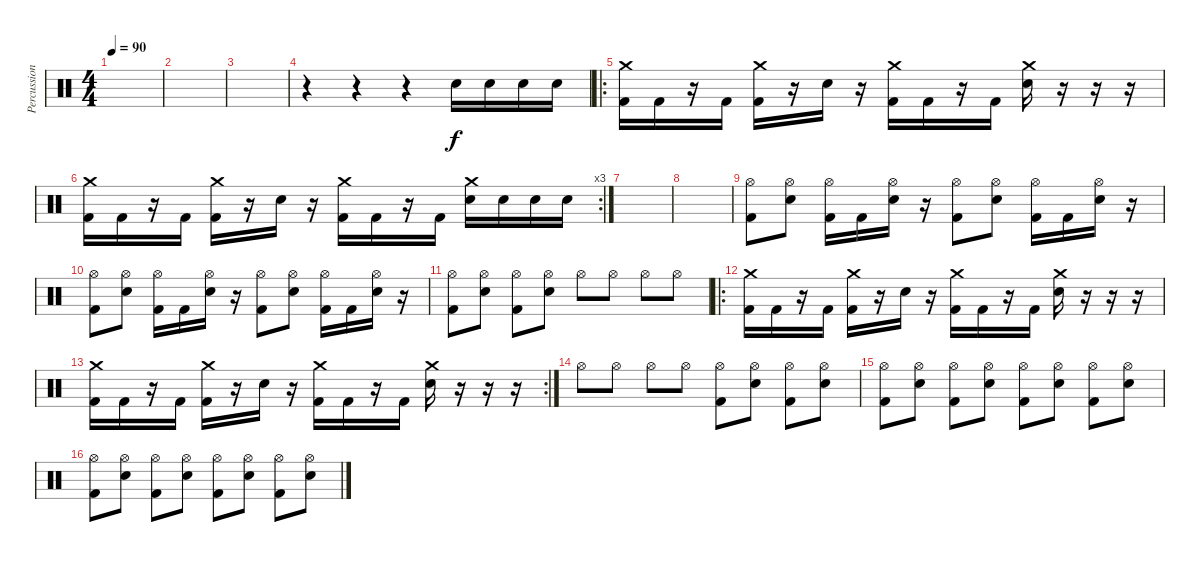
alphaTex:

\track ("Percussions" "Percussion") {instrument percussion}
\staff {score}
\articulation defaults
\ts (4 4)
\tempo 90
\clef neutral
\ks c
|
|
|
r.4 r.4 r.4 "Electric Snare (hit)".16 "Electric Snare (hit)".16 "Electric Snare (hit)".16 "Electric Snare (hit)".16 |
\ro
("Crash medium (hit)" "Kick (hit) 2").16 "Kick (hit) 2".16 r.16 "Kick (hit) 2".16 ("Crash medium (hit)" "Kick (hit) 2").16 r.16 "Electric Snare (hit)".16 r.16 ("Crash medium (hit)" "Kick (hit) 2").16 "Kick (hit) 2".16 r.16 "Kick (hit) 2".16 ("Crash medium (hit)" "Electric Snare (hit)").16 r.16 r.16 r.16 |
\rc 3
("Crash medium (hit)" "Kick (hit) 2").16 "Kick (hit) 2".16 r.16 "Kick (hit) 2".16 ("Crash medium (hit)" "Kick (hit) 2").16 r.16 "Electric Snare (hit)".16 r.16 ("Crash medium (hit)" "Kick (hit) 2").16 "Kick (hit) 2".16 r.16 "Kick (hit) 2".16 ("Crash medium (hit)" "Electric Snare (hit)").16 "Electric Snare (hit)".16 "Electric Snare (hit)".16 "Electric Snare (hit)".16 |
|
|
("Hi-Hat (open)" "Kick (hit) 2").8 ("Hi-Hat (open)" "Electric Snare (hit)").8 ("Hi-Hat (open)" "Kick (hit) 2").16 "Kick (hit) 2".16 ("Hi-Hat (open)" "Electric Snare (hit)").16 r.16 ("Hi-Hat (open)" "Kick (hit) 2").8 ("Hi-Hat (open)" "Electric Snare (hit)").8 ("Hi-Hat (open)" "Kick (hit) 2").16 "Kick (hit) 2".16 ("Hi-Hat (open)" "Electric Snare (hit)").16 r.16 |
("Hi-Hat (open)" "Kick (hit) 2").8 ("Hi-Hat (open)" "Electric Snare (hit)").8 ("Hi-Hat (open)" "Kick (hit) 2").16 "Kick (hit) 2".16 ("Hi-Hat (open)" "Electric Snare (hit)").16 r.16 ("Hi-Hat (open)" "Kick (hit) 2").8 ("Hi-Hat (open)" "Electric Snare (hit)").8 ("Hi-Hat (open)" "Kick (hit) 2").16 "Kick (hit) 2".16 ("Hi-Hat (open)" "Electric Snare (hit)").16 r.16 |
("Hi-Hat (open)" "Kick (hit) 2").8 ("Hi-Hat (open)" "Electric Snare (hit)").8 ("Hi-Hat (open)" "Kick (hit) 2").8 ("Hi-Hat (open)" "Electric Snare (hit)").8 "Hi-Hat (open)".8 "Hi-Hat (open)".8 "Hi-Hat (open)".8 "Hi-Hat (open)".8 |
\ro
("Crash medium (hit)" "Kick (hit) 2").16 "Kick (hit) 2".16 r.16 "Kick (hit) 2".16 ("Crash medium (hit)" "Kick (hit) 2").16 r.16 "Electric Snare (hit)".16 r.16 ("Crash medium (hit)" "Kick (hit) 2").16 "Kick (hit) 2".16 r.16 "Kick (hit) 2".16 ("Crash medium (hit)" "Electric Snare (hit)").16 r.16 r.16 r.16 |
\rc 2
("Crash medium (hit)" "Kick (hit) 2").16 "Kick (hit) 2".16 r.16 "Kick (hit) 2".16 ("Crash medium (hit)" "Kick (hit) 2").16 r.16 "Electric Snare (hit)".16 r.16 ("Crash medium (hit)" "Kick (hit) 2").16 "Kick (hit) 2".16 r.16 "Kick (hit) 2".16 ("Crash medium (hit)" "Electric Snare (hit)").16 r.16 r.16 r.16 |
"Hi-Hat (open)".8 "Hi-Hat (open)".8 "Hi-Hat (open)".8 "Hi-Hat (open)".8 ("Hi-Hat (open)" "Kick (hit) 2").8 ("Hi-Hat (open)" "Electric Snare (hit)").8 ("Hi-Hat (open)" "Kick (hit) 2").8 ("Hi-Hat (open)" "Electric Snare (hit)").8 |
("Hi-Hat (open)" "Kick (hit) 2").8 ("Hi-Hat (open)" "Electric Snare (hit)").8 ("Hi-Hat (open)" "Kick (hit) 2").8 ("Hi-Hat (open)" "Electric Snare (hit)").8 ("Hi-Hat (open)" "Kick (hit) 2").8 ("Hi-Hat (open)" "Electric Snare (hit)").8 ("Hi-Hat (open)" "Kick (hit) 2").8 ("Hi-Hat (open)" "Electric Snare (hit)").8 |
("Hi-Hat (open)" "Kick (hit) 2").8 ("Hi-Hat (open)" "Electric Snare (hit)").8 ("Hi-Hat (open)" "Kick (hit) 2").8 ("Hi-Hat (open)" "Electric Snare (hit)").8 ("Hi-Hat (open)" "Kick (hit) 2").8 ("Hi-Hat (open)" "Electric Snare (hit)").8 ("Hi-Hat (open)" "Kick (hit) 2").8 ("Hi-Hat (open)" "Electric Snare (hit)").8
